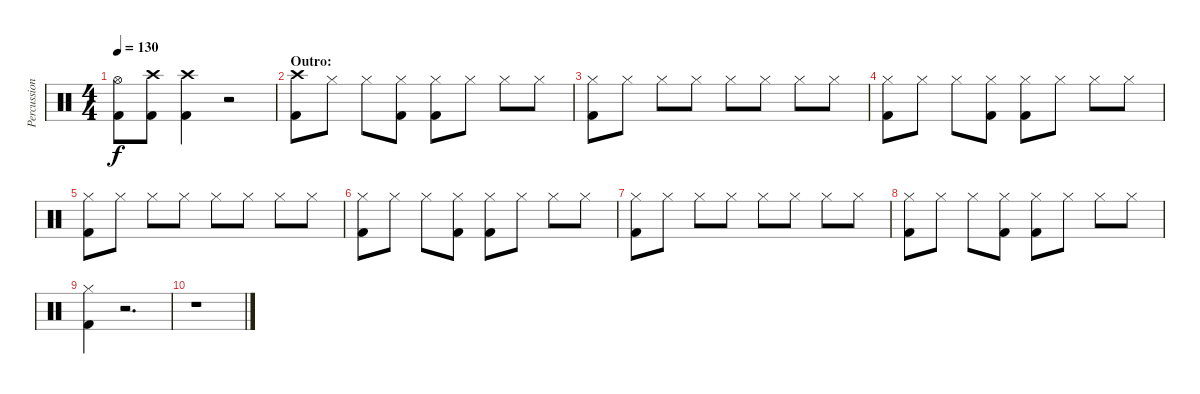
\track ("Percussion" "Percussion") {instrument percussion}
\staff {score}
\articulation defaults
\ts (4 4)
\tempo 130
\clef neutral
\ks c
("Hi-Hat (open)"{t} "Kick (hit) 2"{t}).8{dy f} ("Crash high (hit)" "Kick (hit) 2").8 ("Crash high (hit)" "Kick (hit) 2").4 r.2 |
\section ("" "Outro:")
("Crash high (hit)" "Kick (hit) 2").8 "Hi-Hat (closed)".8 "Hi-Hat (closed)".8 ("Hi-Hat (closed)" "Kick (hit) 2").8 ("Hi-Hat (closed)" "Kick (hit) 2").8 "Hi-Hat (closed)".8 "Hi-Hat (closed)".8 "Hi-Hat (closed)".8 |
("Hi-Hat (closed)" "Kick (hit) 2").8 "Hi-Hat (closed)".8 "Hi-Hat (closed)".8 "Hi-Hat (closed)".8 "Hi-Hat (closed)".8 "Hi-Hat (closed)".8 "Hi-Hat (closed)".8 "Hi-Hat (closed)".8 |
("Hi-Hat (closed)" "Kick (hit) 2").8 "Hi-Hat (closed)".8 "Hi-Hat (closed)".8 ("Hi-Hat (closed)" "Kick (hit) 2").8 ("Hi-Hat (closed)" "Kick (hit) 2").8 "Hi-Hat (closed)".8 "Hi-Hat (closed)".8 "Hi-Hat (closed)".8 |
("Hi-Hat (closed)" "Kick (hit) 2").8 "Hi-Hat (closed)".8 "Hi-Hat (closed)".8 "Hi-Hat (closed)".8 "Hi-Hat (closed)".8 "Hi-Hat (closed)".8 "Hi-Hat (closed)".8 "Hi-Hat (closed)".8 |
("Hi-Hat (closed)" "Kick (hit) 2").8 "Hi-Hat (closed)".8 "Hi-Hat (closed)".8 ("Hi-Hat (closed)" "Kick (hit) 2").8 ("Hi-Hat (closed)" "Kick (hit) 2").8 "Hi-Hat (closed)".8 "Hi-Hat (closed)".8 "Hi-Hat (closed)".8 |
("Hi-Hat (closed)" "Kick (hit) 2").8 "Hi-Hat (closed)".8 "Hi-Hat (closed)".8 "Hi-Hat (closed)".8 "Hi-Hat (closed)".8 "Hi-Hat (closed)".8 "Hi-Hat (closed)".8 "Hi-Hat (closed)".8 |
("Hi-Hat (closed)" "Kick (hit) 2").8 "Hi-Hat (closed)".8 "Hi-Hat (closed)".8 ("Hi-Hat (closed)" "Kick (hit) 2").8 ("Hi-Hat (closed)" "Kick (hit) 2").8 "Hi-Hat (closed)".8 "Hi-Hat (closed)".8 "Hi-Hat (closed)".8 |
("Hi-Hat (closed)" "Kick (hit) 2").4 r.2{d} |
r.1
